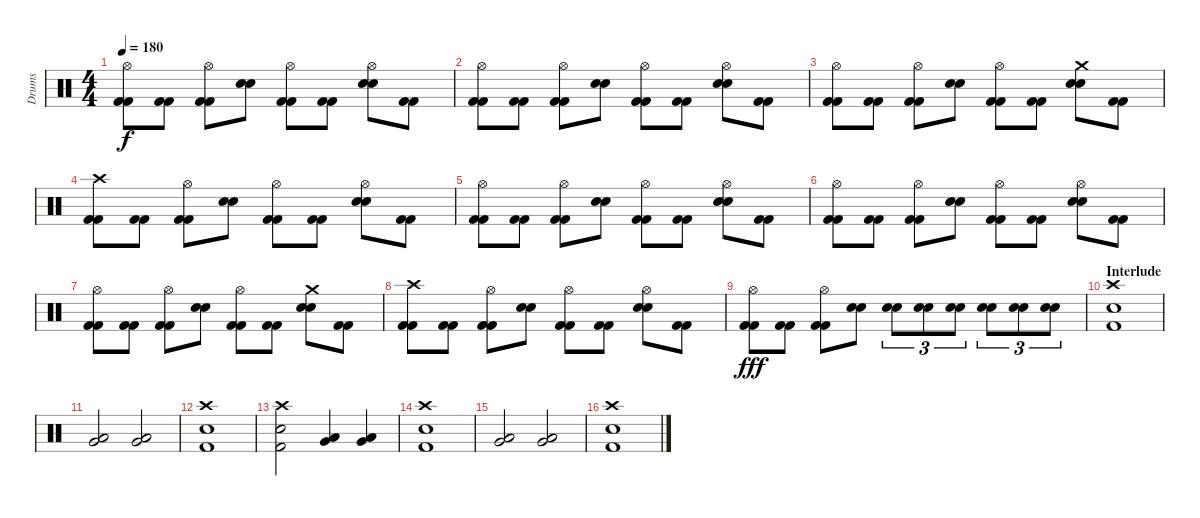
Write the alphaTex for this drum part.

\track ("Drums" "Drums") {instrument percussion}
\staff {score}
\articulation defaults
\ts (4 4)
\tempo 180
\clef neutral
\ks c
("Hi-Hat (open)" "Kick (hit) 2" "Kick (hit) 2").8{dy f} ("Kick (hit) 2" "Kick (hit) 2").8 ("Hi-Hat (open)" "Kick (hit) 2" "Kick (hit) 2").8 ("Snare (hit) 2" "Snare (hit) 2").8 ("Hi-Hat (open)" "Kick (hit) 2" "Kick (hit) 2").8 ("Kick (hit) 2" "Kick (hit) 2").8 ("Hi-Hat (open)" "Snare (hit) 2" "Snare (hit) 2").8 ("Kick (hit) 2" "Kick (hit) 2").8 |
("Hi-Hat (open)" "Kick (hit) 2" "Kick (hit) 2").8 ("Kick (hit) 2" "Kick (hit) 2").8 ("Hi-Hat (open)" "Kick (hit) 2" "Kick (hit) 2").8 ("Snare (hit) 2" "Snare (hit) 2").8 ("Hi-Hat (open)" "Kick (hit) 2" "Kick (hit) 2").8 ("Kick (hit) 2" "Kick (hit) 2").8 ("Hi-Hat (open)" "Snare (hit) 2" "Snare (hit) 2").8 ("Kick (hit) 2" "Kick (hit) 2").8 |
("Hi-Hat (open)" "Kick (hit) 2" "Kick (hit) 2").8 ("Kick (hit) 2" "Kick (hit) 2").8 ("Hi-Hat (open)" "Kick (hit) 2" "Kick (hit) 2").8 ("Snare (hit) 2" "Snare (hit) 2").8 ("Hi-Hat (open)" "Kick (hit) 2" "Kick (hit) 2").8 ("Kick (hit) 2" "Kick (hit) 2").8 ("Crash medium (hit)" "Snare (hit) 2" "Snare (hit) 2").8 ("Kick (hit) 2" "Kick (hit) 2").8 |
("Crash high (hit)" "Kick (hit) 2" "Kick (hit) 2").8 ("Kick (hit) 2" "Kick (hit) 2").8 ("Hi-Hat (open)" "Kick (hit) 2" "Kick (hit) 2").8 ("Snare (hit) 2" "Snare (hit) 2").8 ("Hi-Hat (open)" "Kick (hit) 2" "Kick (hit) 2").8 ("Kick (hit) 2" "Kick (hit) 2").8 ("Hi-Hat (open)" "Snare (hit) 2" "Snare (hit) 2").8 ("Kick (hit) 2" "Kick (hit) 2").8 |
("Hi-Hat (open)" "Kick (hit) 2" "Kick (hit) 2").8 ("Kick (hit) 2" "Kick (hit) 2").8 ("Hi-Hat (open)" "Kick (hit) 2" "Kick (hit) 2").8 ("Snare (hit) 2" "Snare (hit) 2").8 ("Hi-Hat (open)" "Kick (hit) 2" "Kick (hit) 2").8 ("Kick (hit) 2" "Kick (hit) 2").8 ("Hi-Hat (open)" "Snare (hit) 2" "Snare (hit) 2").8 ("Kick (hit) 2" "Kick (hit) 2").8 |
("Hi-Hat (open)" "Kick (hit) 2" "Kick (hit) 2").8 ("Kick (hit) 2" "Kick (hit) 2").8 ("Hi-Hat (open)" "Kick (hit) 2" "Kick (hit) 2").8 ("Snare (hit) 2" "Snare (hit) 2").8 ("Hi-Hat (open)" "Kick (hit) 2" "Kick (hit) 2").8 ("Kick (hit) 2" "Kick (hit) 2").8 ("Hi-Hat (open)" "Snare (hit) 2" "Snare (hit) 2").8 ("Kick (hit) 2" "Kick (hit) 2").8 |
("Hi-Hat (open)" "Kick (hit) 2" "Kick (hit) 2").8 ("Kick (hit) 2" "Kick (hit) 2").8 ("Hi-Hat (open)" "Kick (hit) 2" "Kick (hit) 2").8 ("Snare (hit) 2" "Snare (hit) 2").8 ("Hi-Hat (open)" "Kick (hit) 2" "Kick (hit) 2").8 ("Kick (hit) 2" "Kick (hit) 2").8 ("Crash medium (hit)" "Snare (hit) 2" "Snare (hit) 2").8 ("Kick (hit) 2" "Kick (hit) 2").8 |
("Crash high (hit)" "Kick (hit) 2" "Kick (hit) 2").8 ("Kick (hit) 2" "Kick (hit) 2").8 ("Hi-Hat (open)" "Kick (hit) 2" "Kick (hit) 2").8 ("Snare (hit) 2" "Snare (hit) 2").8 ("Hi-Hat (open)" "Kick (hit) 2" "Kick (hit) 2").8 ("Kick (hit) 2" "Kick (hit) 2").8 ("Hi-Hat (open)" "Snare (hit) 2" "Snare (hit) 2").8 ("Kick (hit) 2" "Kick (hit) 2").8 |
("Hi-Hat (open)" "Kick (hit) 2" "Kick (hit) 2").8{dy fff} ("Kick (hit) 2" "Kick (hit) 2").8 ("Hi-Hat (open)" "Kick (hit) 2" "Kick (hit) 2").8 ("Snare (hit) 2" "Snare (hit) 2").8 ("Snare (hit) 2" "Snare (hit) 2").8{tu (3 2)} ("Snare (hit) 2" "Snare (hit) 2").8{tu (3 2)} ("Snare (hit) 2" "Snare (hit) 2").8{tu (3 2)} ("Snare (hit) 2" "Snare (hit) 2").8{tu (3 2)} ("Snare (hit) 2" "Snare (hit) 2").8{tu (3 2)} ("Snare (hit) 2" "Snare (hit) 2").8{tu (3 2)} |
\section ("" "Interlude")
("Crash high (hit)" "Snare (hit) 2" "Kick (hit) 2").1 |
("Low Tom (hit)" "Very Low Tom (hit)").2 ("Low Tom (hit)" "Very Low Tom (hit)").2 |
("Crash high (hit)" "Snare (hit) 2" "Kick (hit) 2").1 |
("Crash high (hit)" "Snare (hit) 2" "Kick (hit) 2").2 ("Low Tom (hit)" "Very Low Tom (hit)").4 ("Low Tom (hit)" "Very Low Tom (hit)").4 |
("Crash high (hit)" "Snare (hit) 2" "Kick (hit) 2").1 |
("Low Tom (hit)" "Very Low Tom (hit)").2 ("Low Tom (hit)" "Very Low Tom (hit)").2 |
("Crash high (hit)" "Snare (hit) 2" "Kick (hit) 2").1
